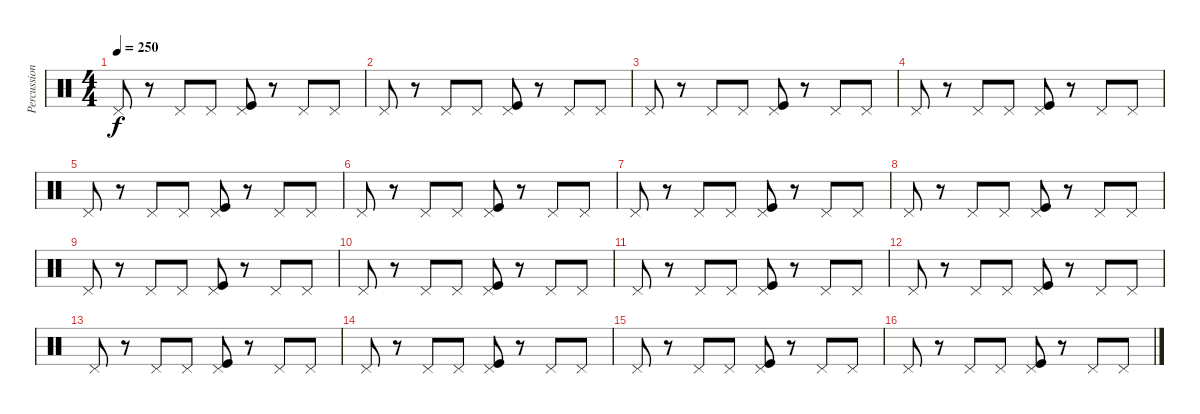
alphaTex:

\track ("Percussions" "Percussion") {instrument percussion}
\staff {score}
\articulation defaults
\ts (4 4)
\tempo 250
\clef neutral
\ks c "Pedal Hi-Hat (hit)".8{dy f}
r.8 "Pedal Hi-Hat (hit)".8 "Pedal Hi-Hat (hit)".8 ("Pedal Hi-Hat (hit)" "Kick (hit)").8 r.8 "Pedal Hi-Hat (hit)".8 "Pedal Hi-Hat (hit)".8 |
"Pedal Hi-Hat (hit)".8 r.8 "Pedal Hi-Hat (hit)".8 "Pedal Hi-Hat (hit)".8 ("Pedal Hi-Hat (hit)" "Kick (hit)").8 r.8 "Pedal Hi-Hat (hit)".8 "Pedal Hi-Hat (hit)".8 |
"Pedal Hi-Hat (hit)".8 r.8 "Pedal Hi-Hat (hit)".8 "Pedal Hi-Hat (hit)".8 ("Pedal Hi-Hat (hit)" "Kick (hit)").8 r.8 "Pedal Hi-Hat (hit)".8 "Pedal Hi-Hat (hit)".8 |
"Pedal Hi-Hat (hit)".8 r.8 "Pedal Hi-Hat (hit)".8 "Pedal Hi-Hat (hit)".8 ("Pedal Hi-Hat (hit)" "Kick (hit)").8 r.8 "Pedal Hi-Hat (hit)".8 "Pedal Hi-Hat (hit)".8 |
"Pedal Hi-Hat (hit)".8 r.8 "Pedal Hi-Hat (hit)".8 "Pedal Hi-Hat (hit)".8 ("Pedal Hi-Hat (hit)" "Kick (hit)").8 r.8 "Pedal Hi-Hat (hit)".8 "Pedal Hi-Hat (hit)".8 |
"Pedal Hi-Hat (hit)".8 r.8 "Pedal Hi-Hat (hit)".8 "Pedal Hi-Hat (hit)".8 ("Pedal Hi-Hat (hit)" "Kick (hit)").8 r.8 "Pedal Hi-Hat (hit)".8 "Pedal Hi-Hat (hit)".8 |
"Pedal Hi-Hat (hit)".8 r.8 "Pedal Hi-Hat (hit)".8 "Pedal Hi-Hat (hit)".8 ("Pedal Hi-Hat (hit)" "Kick (hit)").8 r.8 "Pedal Hi-Hat (hit)".8 "Pedal Hi-Hat (hit)".8 |
"Pedal Hi-Hat (hit)".8 r.8 "Pedal Hi-Hat (hit)".8 "Pedal Hi-Hat (hit)".8 ("Pedal Hi-Hat (hit)" "Kick (hit)").8 r.8 "Pedal Hi-Hat (hit)".8 "Pedal Hi-Hat (hit)".8 |
"Pedal Hi-Hat (hit)".8 r.8 "Pedal Hi-Hat (hit)".8 "Pedal Hi-Hat (hit)".8 ("Pedal Hi-Hat (hit)" "Kick (hit)").8 r.8 "Pedal Hi-Hat (hit)".8 "Pedal Hi-Hat (hit)".8 |
"Pedal Hi-Hat (hit)".8 r.8 "Pedal Hi-Hat (hit)".8 "Pedal Hi-Hat (hit)".8 ("Pedal Hi-Hat (hit)" "Kick (hit)").8 r.8 "Pedal Hi-Hat (hit)".8 "Pedal Hi-Hat (hit)".8 |
"Pedal Hi-Hat (hit)".8 r.8 "Pedal Hi-Hat (hit)".8 "Pedal Hi-Hat (hit)".8 ("Pedal Hi-Hat (hit)" "Kick (hit)").8 r.8 "Pedal Hi-Hat (hit)".8 "Pedal Hi-Hat (hit)".8 |
"Pedal Hi-Hat (hit)".8 r.8 "Pedal Hi-Hat (hit)".8 "Pedal Hi-Hat (hit)".8 ("Pedal Hi-Hat (hit)" "Kick (hit)").8 r.8 "Pedal Hi-Hat (hit)".8 "Pedal Hi-Hat (hit)".8 |
"Pedal Hi-Hat (hit)".8 r.8 "Pedal Hi-Hat (hit)".8 "Pedal Hi-Hat (hit)".8 ("Pedal Hi-Hat (hit)" "Kick (hit)").8 r.8 "Pedal Hi-Hat (hit)".8 "Pedal Hi-Hat (hit)".8 |
"Pedal Hi-Hat (hit)".8 r.8 "Pedal Hi-Hat (hit)".8 "Pedal Hi-Hat (hit)".8 ("Pedal Hi-Hat (hit)" "Kick (hit)").8 r.8 "Pedal Hi-Hat (hit)".8 "Pedal Hi-Hat (hit)".8 |
"Pedal Hi-Hat (hit)".8 r.8 "Pedal Hi-Hat (hit)".8 "Pedal Hi-Hat (hit)".8 ("Pedal Hi-Hat (hit)" "Kick (hit)").8 r.8 "Pedal Hi-Hat (hit)".8 "Pedal Hi-Hat (hit)".8 |
"Pedal Hi-Hat (hit)".8 r.8 "Pedal Hi-Hat (hit)".8 "Pedal Hi-Hat (hit)".8 ("Pedal Hi-Hat (hit)" "Kick (hit)").8 r.8 "Pedal Hi-Hat (hit)".8 "Pedal Hi-Hat (hit)".8
